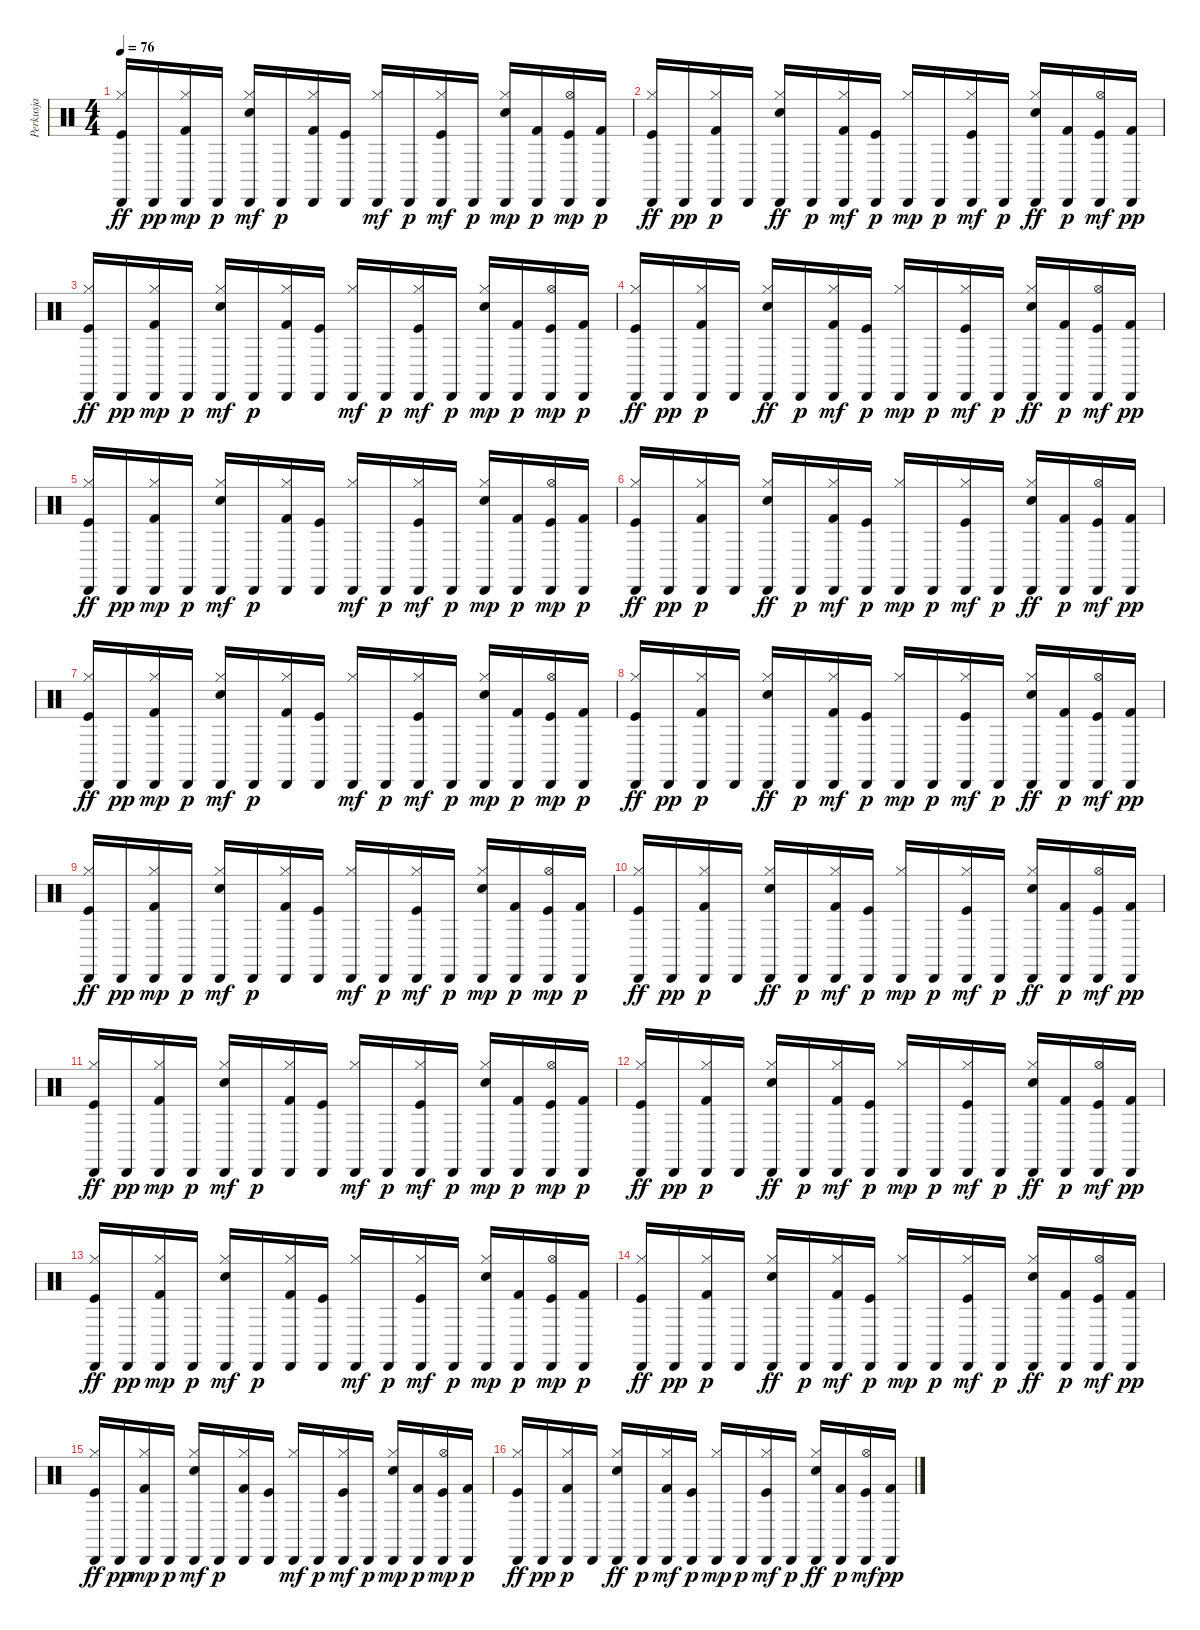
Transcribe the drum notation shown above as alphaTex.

\track ("Perkusja" "Perkusja") {instrument percussion}
\staff {score}
\articulation defaults
\ts (4 4)
\tempo 76
\clef neutral
\ks c
("Cabasa (hit)" "Hi-Hat (closed)" "Kick (hit)").16{dy ff} "Cabasa (hit)".16{dy pp} ("Cabasa (hit)" "Kick (hit) 2" "Hi-Hat (closed)").16{dy mp} "Cabasa (hit)".16{dy p} ("Cabasa (hit)" "Snare (hit) 2" "Hi-Hat (closed)").16{dy mf} "Cabasa (hit)".16{dy p} ("Cabasa (hit)" "Hi-Hat (closed)" "Kick (hit) 2").16 ("Cabasa (hit)" "Kick (hit)").16 ("Cabasa (hit)" "Hi-Hat (closed)").16{dy mf} "Cabasa (hit)".16{dy p} ("Cabasa (hit)" "Hi-Hat (closed)" "Kick (hit)").16{dy mf} "Cabasa (hit)".16{dy p} ("Cabasa (hit)" "Hi-Hat (closed)" "Snare (hit) 2").16{dy mp} ("Cabasa (hit)" "Kick (hit) 2").16{dy p} ("Kick (hit)" "Hi-Hat (open)" "Cabasa (hit)").16{dy mp} ("Cabasa (hit)" "Kick (hit) 2").16{dy p} |
("Cabasa (hit)" "Hi-Hat (closed)" "Kick (hit)").16{dy ff} "Cabasa (hit)".16{dy pp} ("Cabasa (hit)" "Hi-Hat (closed)" "Kick (hit) 2").16{dy p} "Cabasa (hit)".16 ("Cabasa (hit)" "Hi-Hat (closed)" "Snare (hit) 2").16{dy ff} "Cabasa (hit)".16{dy p} ("Cabasa (hit)" "Kick (hit) 2" "Hi-Hat (closed)").16{dy mf} ("Cabasa (hit)" "Kick (hit)").16{dy p} ("Cabasa (hit)" "Hi-Hat (closed)").16{dy mp} "Cabasa (hit)".16{dy p} ("Cabasa (hit)" "Hi-Hat (closed)" "Kick (hit)").16{dy mf} "Cabasa (hit)".16{dy p} ("Cabasa (hit)" "Hi-Hat (closed)" "Snare (hit) 2").16{dy ff} ("Cabasa (hit)" "Kick (hit) 2").16{dy p} ("Cabasa (hit)" "Kick (hit)" "Hi-Hat (open)").16{dy mf} ("Cabasa (hit)" "Kick (hit) 2").16{dy pp} |
("Cabasa (hit)" "Hi-Hat (closed)" "Kick (hit)").16{dy ff} "Cabasa (hit)".16{dy pp} ("Cabasa (hit)" "Kick (hit) 2" "Hi-Hat (closed)").16{dy mp} "Cabasa (hit)".16{dy p} ("Cabasa (hit)" "Snare (hit) 2" "Hi-Hat (closed)").16{dy mf} "Cabasa (hit)".16{dy p} ("Cabasa (hit)" "Hi-Hat (closed)" "Kick (hit) 2").16 ("Cabasa (hit)" "Kick (hit)").16 ("Cabasa (hit)" "Hi-Hat (closed)").16{dy mf} "Cabasa (hit)".16{dy p} ("Cabasa (hit)" "Hi-Hat (closed)" "Kick (hit)").16{dy mf} "Cabasa (hit)".16{dy p} ("Cabasa (hit)" "Hi-Hat (closed)" "Snare (hit) 2").16{dy mp} ("Cabasa (hit)" "Kick (hit) 2").16{dy p} ("Kick (hit)" "Hi-Hat (open)" "Cabasa (hit)").16{dy mp} ("Cabasa (hit)" "Kick (hit) 2").16{dy p} |
("Cabasa (hit)" "Hi-Hat (closed)" "Kick (hit)").16{dy ff} "Cabasa (hit)".16{dy pp} ("Cabasa (hit)" "Hi-Hat (closed)" "Kick (hit) 2").16{dy p} "Cabasa (hit)".16 ("Cabasa (hit)" "Hi-Hat (closed)" "Snare (hit) 2").16{dy ff} "Cabasa (hit)".16{dy p} ("Cabasa (hit)" "Kick (hit) 2" "Hi-Hat (closed)").16{dy mf} ("Cabasa (hit)" "Kick (hit)").16{dy p} ("Cabasa (hit)" "Hi-Hat (closed)").16{dy mp} "Cabasa (hit)".16{dy p} ("Cabasa (hit)" "Hi-Hat (closed)" "Kick (hit)").16{dy mf} "Cabasa (hit)".16{dy p} ("Cabasa (hit)" "Hi-Hat (closed)" "Snare (hit) 2").16{dy ff} ("Cabasa (hit)" "Kick (hit) 2").16{dy p} ("Cabasa (hit)" "Kick (hit)" "Hi-Hat (open)").16{dy mf} ("Cabasa (hit)" "Kick (hit) 2").16{dy pp} |
("Cabasa (hit)" "Hi-Hat (closed)" "Kick (hit)").16{dy ff} "Cabasa (hit)".16{dy pp} ("Cabasa (hit)" "Kick (hit) 2" "Hi-Hat (closed)").16{dy mp} "Cabasa (hit)".16{dy p} ("Cabasa (hit)" "Snare (hit) 2" "Hi-Hat (closed)").16{dy mf} "Cabasa (hit)".16{dy p} ("Cabasa (hit)" "Hi-Hat (closed)" "Kick (hit) 2").16 ("Cabasa (hit)" "Kick (hit)").16 ("Cabasa (hit)" "Hi-Hat (closed)").16{dy mf} "Cabasa (hit)".16{dy p} ("Cabasa (hit)" "Hi-Hat (closed)" "Kick (hit)").16{dy mf} "Cabasa (hit)".16{dy p} ("Cabasa (hit)" "Hi-Hat (closed)" "Snare (hit) 2").16{dy mp} ("Cabasa (hit)" "Kick (hit) 2").16{dy p} ("Kick (hit)" "Hi-Hat (open)" "Cabasa (hit)").16{dy mp} ("Cabasa (hit)" "Kick (hit) 2").16{dy p} |
("Cabasa (hit)" "Hi-Hat (closed)" "Kick (hit)").16{dy ff} "Cabasa (hit)".16{dy pp} ("Cabasa (hit)" "Hi-Hat (closed)" "Kick (hit) 2").16{dy p} "Cabasa (hit)".16 ("Cabasa (hit)" "Hi-Hat (closed)" "Snare (hit) 2").16{dy ff} "Cabasa (hit)".16{dy p} ("Cabasa (hit)" "Kick (hit) 2" "Hi-Hat (closed)").16{dy mf} ("Cabasa (hit)" "Kick (hit)").16{dy p} ("Cabasa (hit)" "Hi-Hat (closed)").16{dy mp} "Cabasa (hit)".16{dy p} ("Cabasa (hit)" "Hi-Hat (closed)" "Kick (hit)").16{dy mf} "Cabasa (hit)".16{dy p} ("Cabasa (hit)" "Hi-Hat (closed)" "Snare (hit) 2").16{dy ff} ("Cabasa (hit)" "Kick (hit) 2").16{dy p} ("Cabasa (hit)" "Kick (hit)" "Hi-Hat (open)").16{dy mf} ("Cabasa (hit)" "Kick (hit) 2").16{dy pp} |
("Cabasa (hit)" "Hi-Hat (closed)" "Kick (hit)").16{dy ff} "Cabasa (hit)".16{dy pp} ("Cabasa (hit)" "Kick (hit) 2" "Hi-Hat (closed)").16{dy mp} "Cabasa (hit)".16{dy p} ("Cabasa (hit)" "Snare (hit) 2" "Hi-Hat (closed)").16{dy mf} "Cabasa (hit)".16{dy p} ("Cabasa (hit)" "Hi-Hat (closed)" "Kick (hit) 2").16 ("Cabasa (hit)" "Kick (hit)").16 ("Cabasa (hit)" "Hi-Hat (closed)").16{dy mf} "Cabasa (hit)".16{dy p} ("Cabasa (hit)" "Hi-Hat (closed)" "Kick (hit)").16{dy mf} "Cabasa (hit)".16{dy p} ("Cabasa (hit)" "Hi-Hat (closed)" "Snare (hit) 2").16{dy mp} ("Cabasa (hit)" "Kick (hit) 2").16{dy p} ("Kick (hit)" "Hi-Hat (open)" "Cabasa (hit)").16{dy mp} ("Cabasa (hit)" "Kick (hit) 2").16{dy p} |
("Cabasa (hit)" "Hi-Hat (closed)" "Kick (hit)").16{dy ff} "Cabasa (hit)".16{dy pp} ("Cabasa (hit)" "Hi-Hat (closed)" "Kick (hit) 2").16{dy p} "Cabasa (hit)".16 ("Cabasa (hit)" "Hi-Hat (closed)" "Snare (hit) 2").16{dy ff} "Cabasa (hit)".16{dy p} ("Cabasa (hit)" "Kick (hit) 2" "Hi-Hat (closed)").16{dy mf} ("Cabasa (hit)" "Kick (hit)").16{dy p} ("Cabasa (hit)" "Hi-Hat (closed)").16{dy mp} "Cabasa (hit)".16{dy p} ("Cabasa (hit)" "Hi-Hat (closed)" "Kick (hit)").16{dy mf} "Cabasa (hit)".16{dy p} ("Cabasa (hit)" "Hi-Hat (closed)" "Snare (hit) 2").16{dy ff} ("Cabasa (hit)" "Kick (hit) 2").16{dy p} ("Cabasa (hit)" "Kick (hit)" "Hi-Hat (open)").16{dy mf} ("Cabasa (hit)" "Kick (hit) 2").16{dy pp} |
("Cabasa (hit)" "Hi-Hat (closed)" "Kick (hit)").16{dy ff} "Cabasa (hit)".16{dy pp} ("Cabasa (hit)" "Kick (hit) 2" "Hi-Hat (closed)").16{dy mp} "Cabasa (hit)".16{dy p} ("Cabasa (hit)" "Snare (hit) 2" "Hi-Hat (closed)").16{dy mf} "Cabasa (hit)".16{dy p} ("Cabasa (hit)" "Hi-Hat (closed)" "Kick (hit) 2").16 ("Cabasa (hit)" "Kick (hit)").16 ("Cabasa (hit)" "Hi-Hat (closed)").16{dy mf} "Cabasa (hit)".16{dy p} ("Cabasa (hit)" "Hi-Hat (closed)" "Kick (hit)").16{dy mf} "Cabasa (hit)".16{dy p} ("Cabasa (hit)" "Hi-Hat (closed)" "Snare (hit) 2").16{dy mp} ("Cabasa (hit)" "Kick (hit) 2").16{dy p} ("Kick (hit)" "Hi-Hat (open)" "Cabasa (hit)").16{dy mp} ("Cabasa (hit)" "Kick (hit) 2").16{dy p} |
("Cabasa (hit)" "Hi-Hat (closed)" "Kick (hit)").16{dy ff} "Cabasa (hit)".16{dy pp} ("Cabasa (hit)" "Hi-Hat (closed)" "Kick (hit) 2").16{dy p} "Cabasa (hit)".16 ("Cabasa (hit)" "Hi-Hat (closed)" "Snare (hit) 2").16{dy ff} "Cabasa (hit)".16{dy p} ("Cabasa (hit)" "Kick (hit) 2" "Hi-Hat (closed)").16{dy mf} ("Cabasa (hit)" "Kick (hit)").16{dy p} ("Cabasa (hit)" "Hi-Hat (closed)").16{dy mp} "Cabasa (hit)".16{dy p} ("Cabasa (hit)" "Hi-Hat (closed)" "Kick (hit)").16{dy mf} "Cabasa (hit)".16{dy p} ("Cabasa (hit)" "Hi-Hat (closed)" "Snare (hit) 2").16{dy ff} ("Cabasa (hit)" "Kick (hit) 2").16{dy p} ("Cabasa (hit)" "Kick (hit)" "Hi-Hat (open)").16{dy mf} ("Cabasa (hit)" "Kick (hit) 2").16{dy pp} |
("Cabasa (hit)" "Hi-Hat (closed)" "Kick (hit)").16{dy ff} "Cabasa (hit)".16{dy pp} ("Cabasa (hit)" "Kick (hit) 2" "Hi-Hat (closed)").16{dy mp} "Cabasa (hit)".16{dy p} ("Cabasa (hit)" "Snare (hit) 2" "Hi-Hat (closed)").16{dy mf} "Cabasa (hit)".16{dy p} ("Cabasa (hit)" "Hi-Hat (closed)" "Kick (hit) 2").16 ("Cabasa (hit)" "Kick (hit)").16 ("Cabasa (hit)" "Hi-Hat (closed)").16{dy mf} "Cabasa (hit)".16{dy p} ("Cabasa (hit)" "Hi-Hat (closed)" "Kick (hit)").16{dy mf} "Cabasa (hit)".16{dy p} ("Cabasa (hit)" "Hi-Hat (closed)" "Snare (hit) 2").16{dy mp} ("Cabasa (hit)" "Kick (hit) 2").16{dy p} ("Kick (hit)" "Hi-Hat (open)" "Cabasa (hit)").16{dy mp} ("Cabasa (hit)" "Kick (hit) 2").16{dy p} |
("Cabasa (hit)" "Hi-Hat (closed)" "Kick (hit)").16{dy ff} "Cabasa (hit)".16{dy pp} ("Cabasa (hit)" "Hi-Hat (closed)" "Kick (hit) 2").16{dy p} "Cabasa (hit)".16 ("Cabasa (hit)" "Hi-Hat (closed)" "Snare (hit) 2").16{dy ff} "Cabasa (hit)".16{dy p} ("Cabasa (hit)" "Kick (hit) 2" "Hi-Hat (closed)").16{dy mf} ("Cabasa (hit)" "Kick (hit)").16{dy p} ("Cabasa (hit)" "Hi-Hat (closed)").16{dy mp} "Cabasa (hit)".16{dy p} ("Cabasa (hit)" "Hi-Hat (closed)" "Kick (hit)").16{dy mf} "Cabasa (hit)".16{dy p} ("Cabasa (hit)" "Hi-Hat (closed)" "Snare (hit) 2").16{dy ff} ("Cabasa (hit)" "Kick (hit) 2").16{dy p} ("Cabasa (hit)" "Kick (hit)" "Hi-Hat (open)").16{dy mf} ("Cabasa (hit)" "Kick (hit) 2").16{dy pp} |
("Cabasa (hit)" "Hi-Hat (closed)" "Kick (hit)").16{dy ff} "Cabasa (hit)".16{dy pp} ("Cabasa (hit)" "Kick (hit) 2" "Hi-Hat (closed)").16{dy mp} "Cabasa (hit)".16{dy p} ("Cabasa (hit)" "Snare (hit) 2" "Hi-Hat (closed)").16{dy mf} "Cabasa (hit)".16{dy p} ("Cabasa (hit)" "Hi-Hat (closed)" "Kick (hit) 2").16 ("Cabasa (hit)" "Kick (hit)").16 ("Cabasa (hit)" "Hi-Hat (closed)").16{dy mf} "Cabasa (hit)".16{dy p} ("Cabasa (hit)" "Hi-Hat (closed)" "Kick (hit)").16{dy mf} "Cabasa (hit)".16{dy p} ("Cabasa (hit)" "Hi-Hat (closed)" "Snare (hit) 2").16{dy mp} ("Cabasa (hit)" "Kick (hit) 2").16{dy p} ("Kick (hit)" "Hi-Hat (open)" "Cabasa (hit)").16{dy mp} ("Cabasa (hit)" "Kick (hit) 2").16{dy p} |
("Cabasa (hit)" "Hi-Hat (closed)" "Kick (hit)").16{dy ff} "Cabasa (hit)".16{dy pp} ("Cabasa (hit)" "Hi-Hat (closed)" "Kick (hit) 2").16{dy p} "Cabasa (hit)".16 ("Cabasa (hit)" "Hi-Hat (closed)" "Snare (hit) 2").16{dy ff} "Cabasa (hit)".16{dy p} ("Cabasa (hit)" "Kick (hit) 2" "Hi-Hat (closed)").16{dy mf} ("Cabasa (hit)" "Kick (hit)").16{dy p} ("Cabasa (hit)" "Hi-Hat (closed)").16{dy mp} "Cabasa (hit)".16{dy p} ("Cabasa (hit)" "Hi-Hat (closed)" "Kick (hit)").16{dy mf} "Cabasa (hit)".16{dy p} ("Cabasa (hit)" "Hi-Hat (closed)" "Snare (hit) 2").16{dy ff} ("Cabasa (hit)" "Kick (hit) 2").16{dy p} ("Cabasa (hit)" "Kick (hit)" "Hi-Hat (open)").16{dy mf} ("Cabasa (hit)" "Kick (hit) 2").16{dy pp} |
("Cabasa (hit)" "Hi-Hat (closed)" "Kick (hit)").16{dy ff} "Cabasa (hit)".16{dy pp} ("Cabasa (hit)" "Kick (hit) 2" "Hi-Hat (closed)").16{dy mp} "Cabasa (hit)".16{dy p} ("Cabasa (hit)" "Snare (hit) 2" "Hi-Hat (closed)").16{dy mf} "Cabasa (hit)".16{dy p} ("Cabasa (hit)" "Hi-Hat (closed)" "Kick (hit) 2").16 ("Cabasa (hit)" "Kick (hit)").16 ("Cabasa (hit)" "Hi-Hat (closed)").16{dy mf} "Cabasa (hit)".16{dy p} ("Cabasa (hit)" "Hi-Hat (closed)" "Kick (hit)").16{dy mf} "Cabasa (hit)".16{dy p} ("Cabasa (hit)" "Hi-Hat (closed)" "Snare (hit) 2").16{dy mp} ("Cabasa (hit)" "Kick (hit) 2").16{dy p} ("Kick (hit)" "Hi-Hat (open)" "Cabasa (hit)").16{dy mp} ("Cabasa (hit)" "Kick (hit) 2").16{dy p} |
("Cabasa (hit)" "Hi-Hat (closed)" "Kick (hit)").16{dy ff} "Cabasa (hit)".16{dy pp} ("Cabasa (hit)" "Hi-Hat (closed)" "Kick (hit) 2").16{dy p} "Cabasa (hit)".16 ("Cabasa (hit)" "Hi-Hat (closed)" "Snare (hit) 2").16{dy ff} "Cabasa (hit)".16{dy p} ("Cabasa (hit)" "Kick (hit) 2" "Hi-Hat (closed)").16{dy mf} ("Cabasa (hit)" "Kick (hit)").16{dy p} ("Cabasa (hit)" "Hi-Hat (closed)").16{dy mp} "Cabasa (hit)".16{dy p} ("Cabasa (hit)" "Hi-Hat (closed)" "Kick (hit)").16{dy mf} "Cabasa (hit)".16{dy p} ("Cabasa (hit)" "Hi-Hat (closed)" "Snare (hit) 2").16{dy ff} ("Cabasa (hit)" "Kick (hit) 2").16{dy p} ("Cabasa (hit)" "Kick (hit)" "Hi-Hat (open)").16{dy mf} ("Cabasa (hit)" "Kick (hit) 2").16{dy pp}
